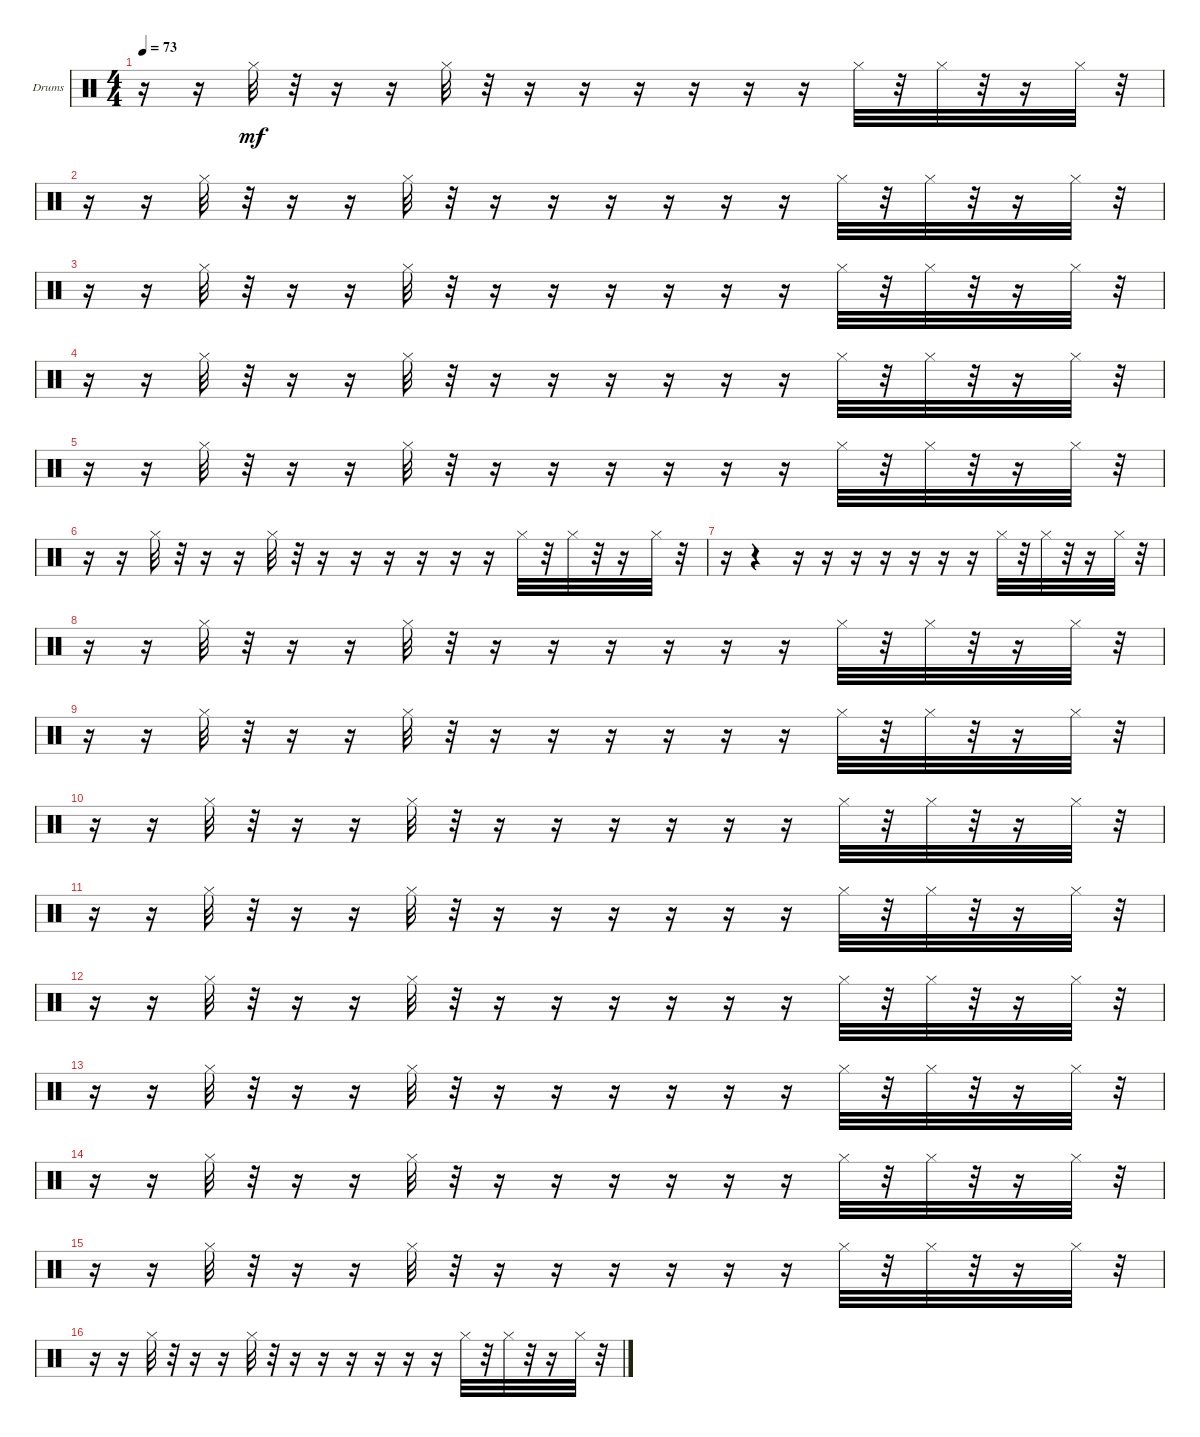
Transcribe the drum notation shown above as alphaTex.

\bracketExtendMode groupsimilarinstruments
\firstSystemTrackNameOrientation horizontal
\otherSystemsTrackNameOrientation horizontal
\track ("hi hat" "Drums") {instrument percussion}
\staff {score}
\articulation defaults
\ts (4 4)
\tempo 73
\clef neutral
\ks c
r.16{dy mf} r.16 "Hi-Hat (closed)".32 r.32 r.16 r.16 "Hi-Hat (closed)".32 r.32 r.16 r.16 r.16 r.16 r.16 r.16 "Hi-Hat (closed)".32 r.32 "Hi-Hat (closed)".32 r.32 r.16 "Hi-Hat (closed)".32 r.32 |
r.16 r.16 "Hi-Hat (closed)".32 r.32 r.16 r.16 "Hi-Hat (closed)".32 r.32 r.16 r.16 r.16 r.16 r.16 r.16 "Hi-Hat (closed)".32 r.32 "Hi-Hat (closed)".32 r.32 r.16 "Hi-Hat (closed)".32 r.32 |
r.16 r.16 "Hi-Hat (closed)".32 r.32 r.16 r.16 "Hi-Hat (closed)".32 r.32 r.16 r.16 r.16 r.16 r.16 r.16 "Hi-Hat (closed)".32 r.32 "Hi-Hat (closed)".32 r.32 r.16 "Hi-Hat (closed)".32 r.32 |
r.16 r.16 "Hi-Hat (closed)".32 r.32 r.16 r.16 "Hi-Hat (closed)".32 r.32 r.16 r.16 r.16 r.16 r.16 r.16 "Hi-Hat (closed)".32 r.32 "Hi-Hat (closed)".32 r.32 r.16 "Hi-Hat (closed)".32 r.32 |
r.16 r.16 "Hi-Hat (closed)".32 r.32 r.16 r.16 "Hi-Hat (closed)".32 r.32 r.16 r.16 r.16 r.16 r.16 r.16 "Hi-Hat (closed)".32 r.32 "Hi-Hat (closed)".32 r.32 r.16 "Hi-Hat (closed)".32 r.32 |
r.16 r.16 "Hi-Hat (closed)".32 r.32 r.16 r.16 "Hi-Hat (closed)".32 r.32 r.16 r.16 r.16 r.16 r.16 r.16 "Hi-Hat (closed)".32 r.32 "Hi-Hat (closed)".32 r.32 r.16 "Hi-Hat (closed)".32 r.32 |
r.16 r.4 r.16 r.16 r.16 r.16 r.16 r.16 r.16 "Hi-Hat (closed)".32 r.32 "Hi-Hat (closed)".32 r.32 r.16 "Hi-Hat (closed)".32 r.32 |
r.16 r.16 "Hi-Hat (closed)".32 r.32 r.16 r.16 "Hi-Hat (closed)".32 r.32 r.16 r.16 r.16 r.16 r.16 r.16 "Hi-Hat (closed)".32 r.32 "Hi-Hat (closed)".32 r.32 r.16 "Hi-Hat (closed)".32 r.32 |
r.16 r.16 "Hi-Hat (closed)".32 r.32 r.16 r.16 "Hi-Hat (closed)".32 r.32 r.16 r.16 r.16 r.16 r.16 r.16 "Hi-Hat (closed)".32 r.32 "Hi-Hat (closed)".32 r.32 r.16 "Hi-Hat (closed)".32 r.32 |
r.16 r.16 "Hi-Hat (closed)".32 r.32 r.16 r.16 "Hi-Hat (closed)".32 r.32 r.16 r.16 r.16 r.16 r.16 r.16 "Hi-Hat (closed)".32 r.32 "Hi-Hat (closed)".32 r.32 r.16 "Hi-Hat (closed)".32 r.32 |
r.16 r.16 "Hi-Hat (closed)".32 r.32 r.16 r.16 "Hi-Hat (closed)".32 r.32 r.16 r.16 r.16 r.16 r.16 r.16 "Hi-Hat (closed)".32 r.32 "Hi-Hat (closed)".32 r.32 r.16 "Hi-Hat (closed)".32 r.32 |
r.16 r.16 "Hi-Hat (closed)".32 r.32 r.16 r.16 "Hi-Hat (closed)".32 r.32 r.16 r.16 r.16 r.16 r.16 r.16 "Hi-Hat (closed)".32 r.32 "Hi-Hat (closed)".32 r.32 r.16 "Hi-Hat (closed)".32 r.32 |
r.16 r.16 "Hi-Hat (closed)".32 r.32 r.16 r.16 "Hi-Hat (closed)".32 r.32 r.16 r.16 r.16 r.16 r.16 r.16 "Hi-Hat (closed)".32 r.32 "Hi-Hat (closed)".32 r.32 r.16 "Hi-Hat (closed)".32 r.32 |
r.16 r.16 "Hi-Hat (closed)".32 r.32 r.16 r.16 "Hi-Hat (closed)".32 r.32 r.16 r.16 r.16 r.16 r.16 r.16 "Hi-Hat (closed)".32 r.32 "Hi-Hat (closed)".32 r.32 r.16 "Hi-Hat (closed)".32 r.32 |
r.16 r.16 "Hi-Hat (closed)".32 r.32 r.16 r.16 "Hi-Hat (closed)".32 r.32 r.16 r.16 r.16 r.16 r.16 r.16 "Hi-Hat (closed)".32 r.32 "Hi-Hat (closed)".32 r.32 r.16 "Hi-Hat (closed)".32 r.32 |
r.16 r.16 "Hi-Hat (closed)".32 r.32 r.16 r.16 "Hi-Hat (closed)".32 r.32 r.16 r.16 r.16 r.16 r.16 r.16 "Hi-Hat (closed)".32 r.32 "Hi-Hat (closed)".32 r.32 r.16 "Hi-Hat (closed)".32 r.32
